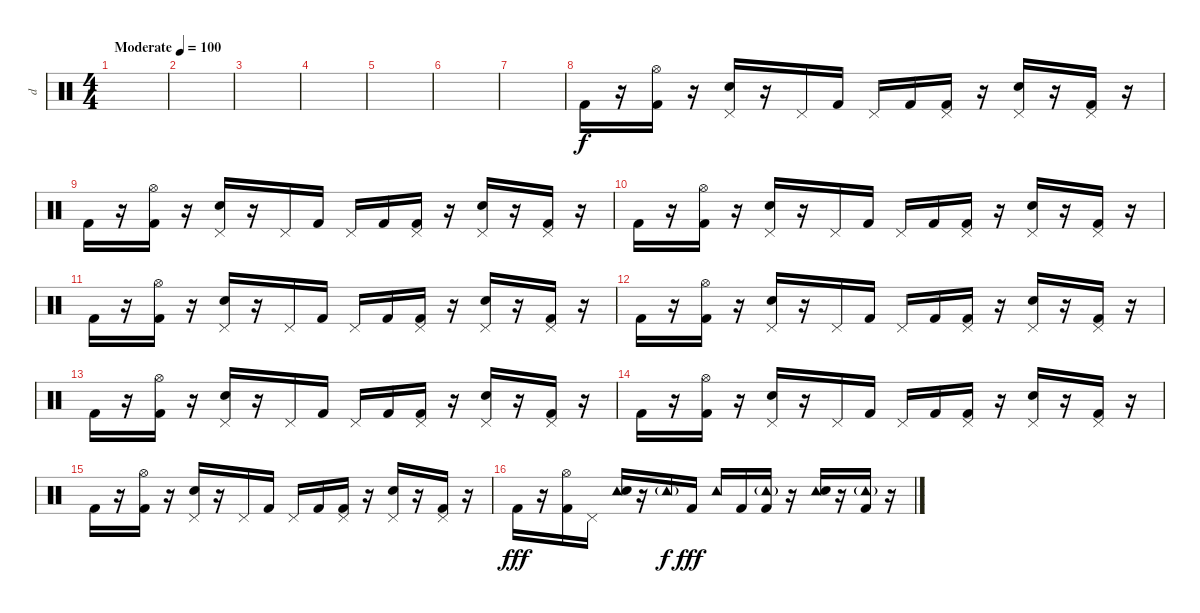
\track ("d" "d") {instrument percussion}
\staff {score}
\articulation defaults
\ts (4 4)
\tempo (100 "Moderate")
\clef neutral
\ks c
|
|
|
|
|
|
|
"Kick (hit) 2".16 r.16 ("Hi-Hat (open)" "Kick (hit) 2").16 r.16 ("Pedal Hi-Hat (hit)" "Snare (hit) 2").16 r.16 "Pedal Hi-Hat (hit)".16 "Kick (hit) 2".16 "Pedal Hi-Hat (hit)".16 "Kick (hit) 2".16 ("Pedal Hi-Hat (hit)" "Kick (hit) 2").16 r.16 ("Pedal Hi-Hat (hit)" "Snare (hit) 2").16 r.16 ("Pedal Hi-Hat (hit)" "Kick (hit) 2").16 r.16 |
"Kick (hit) 2".16 r.16 ("Hi-Hat (open)" "Kick (hit) 2").16 r.16 ("Pedal Hi-Hat (hit)" "Snare (hit) 2").16 r.16 "Pedal Hi-Hat (hit)".16 "Kick (hit) 2".16 "Pedal Hi-Hat (hit)".16 "Kick (hit) 2".16 ("Pedal Hi-Hat (hit)" "Kick (hit) 2").16 r.16 ("Pedal Hi-Hat (hit)" "Snare (hit) 2").16 r.16 ("Pedal Hi-Hat (hit)" "Kick (hit) 2").16 r.16 |
"Kick (hit) 2".16 r.16 ("Hi-Hat (open)" "Kick (hit) 2").16 r.16 ("Pedal Hi-Hat (hit)" "Snare (hit) 2").16 r.16 "Pedal Hi-Hat (hit)".16 "Kick (hit) 2".16 "Pedal Hi-Hat (hit)".16 "Kick (hit) 2".16 ("Pedal Hi-Hat (hit)" "Kick (hit) 2").16 r.16 ("Pedal Hi-Hat (hit)" "Snare (hit) 2").16 r.16 ("Pedal Hi-Hat (hit)" "Kick (hit) 2").16 r.16 |
"Kick (hit) 2".16 r.16 ("Hi-Hat (open)" "Kick (hit) 2").16 r.16 ("Pedal Hi-Hat (hit)" "Snare (hit) 2").16 r.16 "Pedal Hi-Hat (hit)".16 "Kick (hit) 2".16 "Pedal Hi-Hat (hit)".16 "Kick (hit) 2".16 ("Pedal Hi-Hat (hit)" "Kick (hit) 2").16 r.16 ("Pedal Hi-Hat (hit)" "Snare (hit) 2").16 r.16 ("Pedal Hi-Hat (hit)" "Kick (hit) 2").16 r.16 |
"Kick (hit) 2".16 r.16 ("Hi-Hat (open)" "Kick (hit) 2").16 r.16 ("Pedal Hi-Hat (hit)" "Snare (hit) 2").16 r.16 "Pedal Hi-Hat (hit)".16 "Kick (hit) 2".16 "Pedal Hi-Hat (hit)".16 "Kick (hit) 2".16 ("Pedal Hi-Hat (hit)" "Kick (hit) 2").16 r.16 ("Pedal Hi-Hat (hit)" "Snare (hit) 2").16 r.16 ("Pedal Hi-Hat (hit)" "Kick (hit) 2").16 r.16 |
"Kick (hit) 2".16 r.16 ("Hi-Hat (open)" "Kick (hit) 2").16 r.16 ("Pedal Hi-Hat (hit)" "Snare (hit) 2").16 r.16 "Pedal Hi-Hat (hit)".16 "Kick (hit) 2".16 "Pedal Hi-Hat (hit)".16 "Kick (hit) 2".16 ("Pedal Hi-Hat (hit)" "Kick (hit) 2").16 r.16 ("Pedal Hi-Hat (hit)" "Snare (hit) 2").16 r.16 ("Pedal Hi-Hat (hit)" "Kick (hit) 2").16 r.16 |
"Kick (hit) 2".16 r.16 ("Hi-Hat (open)" "Kick (hit) 2").16 r.16 ("Pedal Hi-Hat (hit)" "Snare (hit) 2").16 r.16 "Pedal Hi-Hat (hit)".16 "Kick (hit) 2".16 "Pedal Hi-Hat (hit)".16 "Kick (hit) 2".16 ("Pedal Hi-Hat (hit)" "Kick (hit) 2").16 r.16 ("Pedal Hi-Hat (hit)" "Snare (hit) 2").16 r.16 ("Pedal Hi-Hat (hit)" "Kick (hit) 2").16 r.16 |
"Kick (hit) 2".16 r.16 ("Hi-Hat (open)" "Kick (hit) 2").16 r.16 ("Pedal Hi-Hat (hit)" "Snare (hit) 2").16 r.16 "Pedal Hi-Hat (hit)".16 "Kick (hit) 2".16 "Pedal Hi-Hat (hit)".16 "Kick (hit) 2".16 ("Pedal Hi-Hat (hit)" "Kick (hit) 2").16 r.16 ("Pedal Hi-Hat (hit)" "Snare (hit) 2").16 r.16 ("Pedal Hi-Hat (hit)" "Kick (hit) 2").16 r.16 |
"Kick (hit) 2".16{dy fff} r.16 ("Hi-Hat (open)" "Kick (hit) 2").16 "Pedal Hi-Hat (hit)".16 ("Tambourine (hit)" "Snare (hit) 2").16 r.16 "Tambourine (hit)"{g}.16{dy f} "Kick (hit) 2".16{dy fff} "Tambourine (hit)".16 "Kick (hit) 2".16 ("Tambourine (hit)"{g} "Kick (hit) 2").16 r.16 ("Tambourine (hit)" "Snare (hit) 2").16 r.16 ("Tambourine (hit)"{g} "Kick (hit) 2").16 r.16
